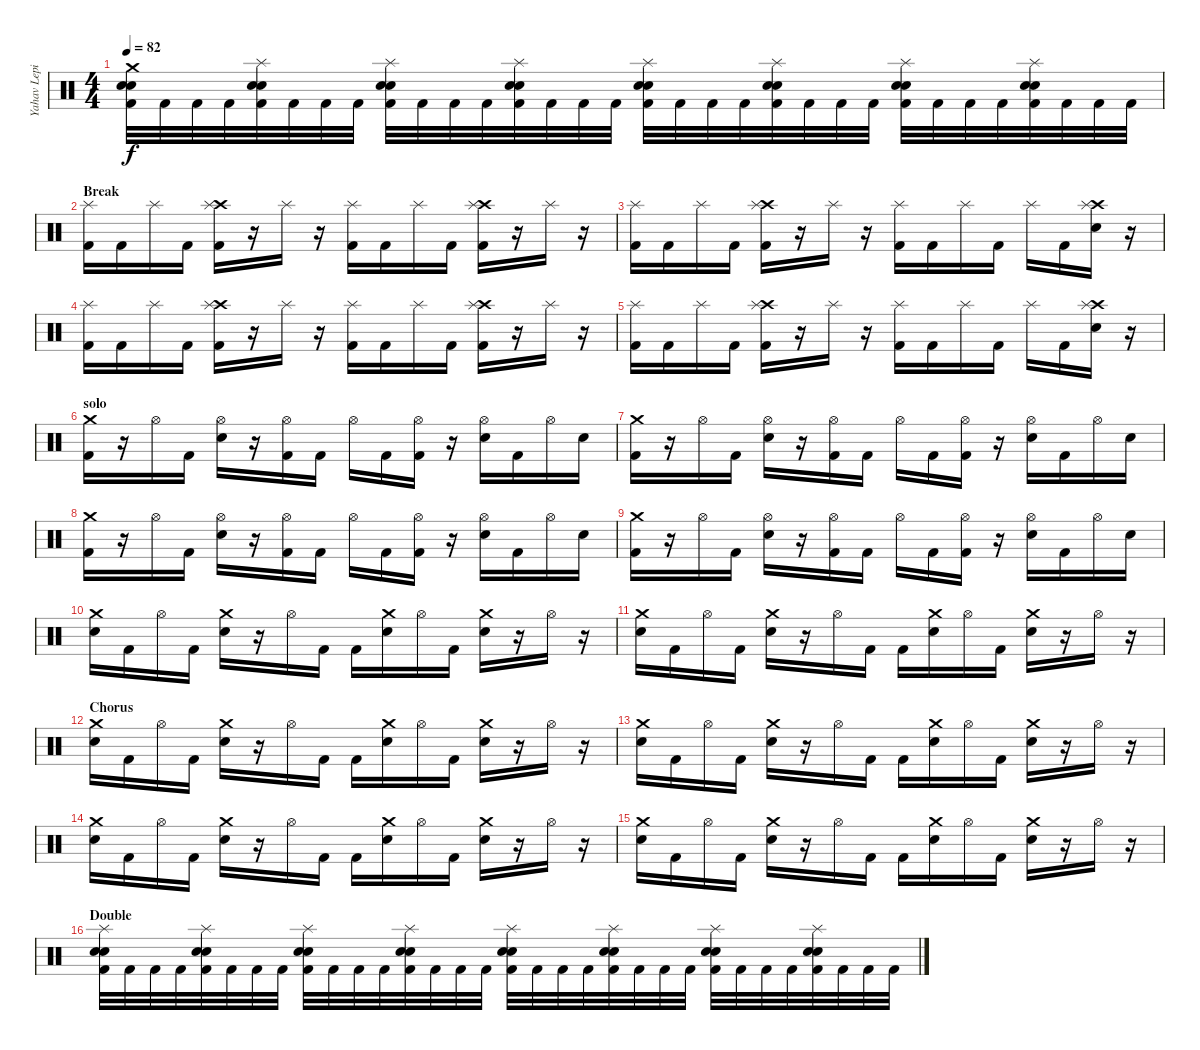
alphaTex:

\track ("Yahav Lepinsky" "Yahav Lepi") {instrument percussion}
\staff {score}
\articulation defaults
\ts (4 4)
\tempo 82
\clef neutral
\ks c
("Crash medium (hit)" "Electric Snare (hit)" "Electric Snare (hit)" "Kick (hit) 2").32{dy f} "Kick (hit) 2".32 "Kick (hit) 2".32 "Kick (hit) 2".32 ("Splash (hit)" "Electric Snare (hit)" "Electric Snare (hit)" "Kick (hit) 2").32 "Kick (hit) 2".32 "Kick (hit) 2".32 "Kick (hit) 2".32 ("Splash (hit)" "Electric Snare (hit)" "Electric Snare (hit)" "Kick (hit) 2").32 "Kick (hit) 2".32 "Kick (hit) 2".32 "Kick (hit) 2".32 ("Splash (hit)" "Electric Snare (hit)" "Electric Snare (hit)" "Kick (hit) 2").32 "Kick (hit) 2".32 "Kick (hit) 2".32 "Kick (hit) 2".32 ("Splash (hit)" "Electric Snare (hit)" "Electric Snare (hit)" "Kick (hit) 2").32 "Kick (hit) 2".32 "Kick (hit) 2".32 "Kick (hit) 2".32 ("Splash (hit)" "Electric Snare (hit)" "Electric Snare (hit)" "Kick (hit) 2").32 "Kick (hit) 2".32 "Kick (hit) 2".32 "Kick (hit) 2".32 ("Splash (hit)" "Electric Snare (hit)" "Electric Snare (hit)" "Kick (hit) 2").32 "Kick (hit) 2".32 "Kick (hit) 2".32 "Kick (hit) 2".32 ("Splash (hit)" "Electric Snare (hit)" "Electric Snare (hit)" "Kick (hit) 2").32 "Kick (hit) 2".32 "Kick (hit) 2".32 "Kick (hit) 2".32 |
\section ("" "Break")
("Splash (hit)" "Kick (hit) 2").16 "Kick (hit) 2".16 "Splash (hit)".16 "Kick (hit) 2".16 ("Crash high (hit)" "Splash (hit)" "Kick (hit) 2").16 r.16 "Splash (hit)".16 r.16 ("Splash (hit)" "Kick (hit) 2").16 "Kick (hit) 2".16 "Splash (hit)".16 "Kick (hit) 2".16 ("Crash high (hit)" "Splash (hit)" "Kick (hit) 2").16 r.16 "Splash (hit)".16 r.16 |
("Splash (hit)" "Kick (hit) 2").16 "Kick (hit) 2".16 "Splash (hit)".16 "Kick (hit) 2".16 ("Crash high (hit)" "Splash (hit)" "Kick (hit) 2").16 r.16 "Splash (hit)".16 r.16 ("Splash (hit)" "Kick (hit) 2").16 "Kick (hit) 2".16 "Splash (hit)".16 "Kick (hit) 2".16 "Splash (hit)".16 "Kick (hit) 2".16 ("Crash high (hit)" "Electric Snare (hit)" "Splash (hit)").16 r.16 |
("Splash (hit)" "Kick (hit) 2").16 "Kick (hit) 2".16 "Splash (hit)".16 "Kick (hit) 2".16 ("Crash high (hit)" "Splash (hit)" "Kick (hit) 2").16 r.16 "Splash (hit)".16 r.16 ("Splash (hit)" "Kick (hit) 2").16 "Kick (hit) 2".16 "Splash (hit)".16 "Kick (hit) 2".16 ("Crash high (hit)" "Splash (hit)" "Kick (hit) 2").16 r.16 "Splash (hit)".16 r.16 |
("Splash (hit)" "Kick (hit) 2").16 "Kick (hit) 2".16 "Splash (hit)".16 "Kick (hit) 2".16 ("Crash high (hit)" "Splash (hit)" "Kick (hit) 2").16 r.16 "Splash (hit)".16 r.16 ("Splash (hit)" "Kick (hit) 2").16 "Kick (hit) 2".16 "Splash (hit)".16 "Kick (hit) 2".16 "Splash (hit)".16 "Kick (hit) 2".16 ("Crash high (hit)" "Electric Snare (hit)" "Splash (hit)").16 r.16 |
\section ("" "solo")
("Crash medium (hit)" "Kick (hit) 2").16 r.16 "Hi-Hat (open)".16 "Kick (hit) 2".16 ("Hi-Hat (open)" "Electric Snare (hit)").16 r.16 ("Hi-Hat (open)" "Kick (hit) 2").16 "Kick (hit) 2".16 "Hi-Hat (open)".16 "Kick (hit) 2".16 ("Hi-Hat (open)" "Kick (hit) 2").16 r.16 ("Hi-Hat (open)" "Electric Snare (hit)").16 "Kick (hit) 2".16 "Hi-Hat (open)".16 "Electric Snare (hit)".16 |
("Crash medium (hit)" "Kick (hit) 2").16 r.16 "Hi-Hat (open)".16 "Kick (hit) 2".16 ("Hi-Hat (open)" "Electric Snare (hit)").16 r.16 ("Hi-Hat (open)" "Kick (hit) 2").16 "Kick (hit) 2".16 "Hi-Hat (open)".16 "Kick (hit) 2".16 ("Hi-Hat (open)" "Kick (hit) 2").16 r.16 ("Hi-Hat (open)" "Electric Snare (hit)").16 "Kick (hit) 2".16 "Hi-Hat (open)".16 "Electric Snare (hit)".16 |
("Crash medium (hit)" "Kick (hit) 2").16 r.16 "Hi-Hat (open)".16 "Kick (hit) 2".16 ("Hi-Hat (open)" "Electric Snare (hit)").16 r.16 ("Hi-Hat (open)" "Kick (hit) 2").16 "Kick (hit) 2".16 "Hi-Hat (open)".16 "Kick (hit) 2".16 ("Hi-Hat (open)" "Kick (hit) 2").16 r.16 ("Hi-Hat (open)" "Electric Snare (hit)").16 "Kick (hit) 2".16 "Hi-Hat (open)".16 "Electric Snare (hit)".16 |
("Crash medium (hit)" "Kick (hit) 2").16 r.16 "Hi-Hat (open)".16 "Kick (hit) 2".16 ("Hi-Hat (open)" "Electric Snare (hit)").16 r.16 ("Hi-Hat (open)" "Kick (hit) 2").16 "Kick (hit) 2".16 "Hi-Hat (open)".16 "Kick (hit) 2".16 ("Hi-Hat (open)" "Kick (hit) 2").16 r.16 ("Hi-Hat (open)" "Electric Snare (hit)").16 "Kick (hit) 2".16 "Hi-Hat (open)".16 "Electric Snare (hit)".16 |
("Crash medium (hit)" "Electric Snare (hit)").16 "Kick (hit) 2".16 "Hi-Hat (open)".16 "Kick (hit) 2".16 ("Crash medium (hit)" "Electric Snare (hit)").16 r.16 "Hi-Hat (open)".16 "Kick (hit) 2".16 "Kick (hit) 2".16 ("Crash medium (hit)" "Electric Snare (hit)").16 "Hi-Hat (open)".16 "Kick (hit) 2".16 ("Crash medium (hit)" "Electric Snare (hit)").16 r.16 "Hi-Hat (open)".16 r.16 |
("Crash medium (hit)" "Electric Snare (hit)").16 "Kick (hit) 2".16 "Hi-Hat (open)".16 "Kick (hit) 2".16 ("Crash medium (hit)" "Electric Snare (hit)").16 r.16 "Hi-Hat (open)".16 "Kick (hit) 2".16 "Kick (hit) 2".16 ("Crash medium (hit)" "Electric Snare (hit)").16 "Hi-Hat (open)".16 "Kick (hit) 2".16 ("Crash medium (hit)" "Electric Snare (hit)").16 r.16 "Hi-Hat (open)".16 r.16 |
\section ("" "Chorus")
("Crash medium (hit)" "Electric Snare (hit)").16 "Kick (hit) 2".16 "Hi-Hat (open)".16 "Kick (hit) 2".16 ("Crash medium (hit)" "Electric Snare (hit)").16 r.16 "Hi-Hat (open)".16 "Kick (hit) 2".16 "Kick (hit) 2".16 ("Crash medium (hit)" "Electric Snare (hit)").16 "Hi-Hat (open)".16 "Kick (hit) 2".16 ("Crash medium (hit)" "Electric Snare (hit)").16 r.16 "Hi-Hat (open)".16 r.16 |
("Crash medium (hit)" "Electric Snare (hit)").16 "Kick (hit) 2".16 "Hi-Hat (open)".16 "Kick (hit) 2".16 ("Crash medium (hit)" "Electric Snare (hit)").16 r.16 "Hi-Hat (open)".16 "Kick (hit) 2".16 "Kick (hit) 2".16 ("Crash medium (hit)" "Electric Snare (hit)").16 "Hi-Hat (open)".16 "Kick (hit) 2".16 ("Crash medium (hit)" "Electric Snare (hit)").16 r.16 "Hi-Hat (open)".16 r.16 |
("Crash medium (hit)" "Electric Snare (hit)").16 "Kick (hit) 2".16 "Hi-Hat (open)".16 "Kick (hit) 2".16 ("Crash medium (hit)" "Electric Snare (hit)").16 r.16 "Hi-Hat (open)".16 "Kick (hit) 2".16 "Kick (hit) 2".16 ("Crash medium (hit)" "Electric Snare (hit)").16 "Hi-Hat (open)".16 "Kick (hit) 2".16 ("Crash medium (hit)" "Electric Snare (hit)").16 r.16 "Hi-Hat (open)".16 r.16 |
("Crash medium (hit)" "Electric Snare (hit)").16 "Kick (hit) 2".16 "Hi-Hat (open)".16 "Kick (hit) 2".16 ("Crash medium (hit)" "Electric Snare (hit)").16 r.16 "Hi-Hat (open)".16 "Kick (hit) 2".16 "Kick (hit) 2".16 ("Crash medium (hit)" "Electric Snare (hit)").16 "Hi-Hat (open)".16 "Kick (hit) 2".16 ("Crash medium (hit)" "Electric Snare (hit)").16 r.16 "Hi-Hat (open)".16 r.16 |
\section ("" "Double")
("Splash (hit)" "Electric Snare (hit)" "Electric Snare (hit)" "Kick (hit) 2").32 "Kick (hit) 2".32 "Kick (hit) 2".32 "Kick (hit) 2".32 ("Splash (hit)" "Electric Snare (hit)" "Electric Snare (hit)" "Kick (hit) 2").32 "Kick (hit) 2".32 "Kick (hit) 2".32 "Kick (hit) 2".32 ("Splash (hit)" "Electric Snare (hit)" "Electric Snare (hit)" "Kick (hit) 2").32 "Kick (hit) 2".32 "Kick (hit) 2".32 "Kick (hit) 2".32 ("Splash (hit)" "Electric Snare (hit)" "Electric Snare (hit)" "Kick (hit) 2").32 "Kick (hit) 2".32 "Kick (hit) 2".32 "Kick (hit) 2".32 ("Splash (hit)" "Electric Snare (hit)" "Electric Snare (hit)" "Kick (hit) 2").32 "Kick (hit) 2".32 "Kick (hit) 2".32 "Kick (hit) 2".32 ("Splash (hit)" "Electric Snare (hit)" "Electric Snare (hit)" "Kick (hit) 2").32 "Kick (hit) 2".32 "Kick (hit) 2".32 "Kick (hit) 2".32 ("Splash (hit)" "Electric Snare (hit)" "Electric Snare (hit)" "Kick (hit) 2").32 "Kick (hit) 2".32 "Kick (hit) 2".32 "Kick (hit) 2".32 ("Splash (hit)" "Electric Snare (hit)" "Electric Snare (hit)" "Kick (hit) 2").32 "Kick (hit) 2".32 "Kick (hit) 2".32 "Kick (hit) 2".32
